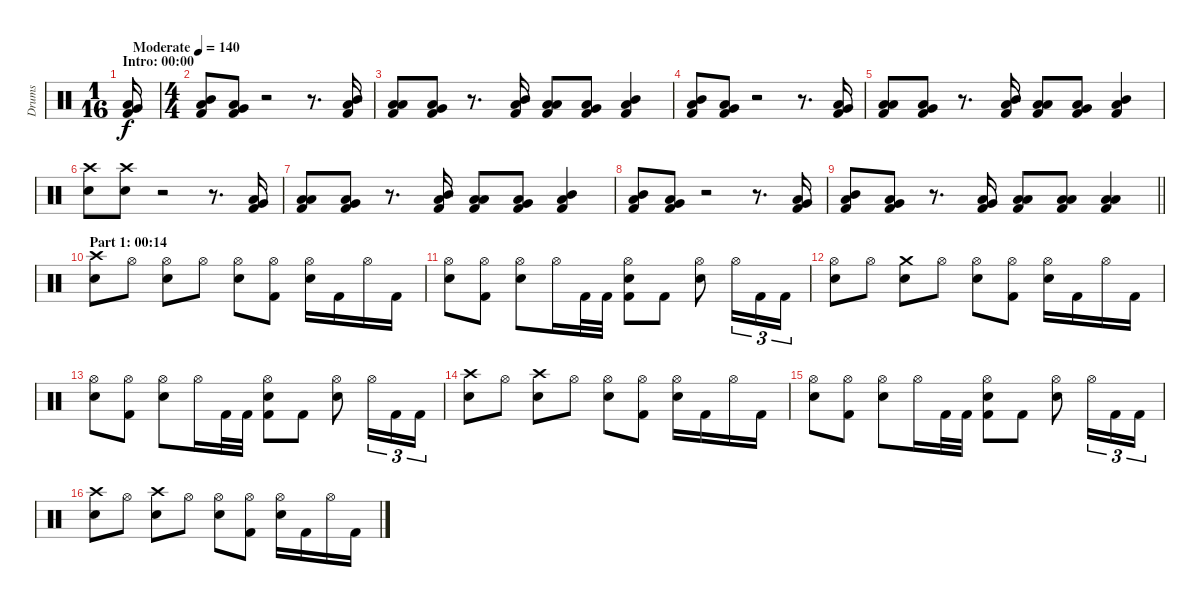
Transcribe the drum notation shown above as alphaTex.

\track ("Drums" "Drums") {instrument percussion}
\staff {score}
\articulation defaults
\ts (1 16)
\section ("" "Intro: 00:00")
\tempo (140 "Moderate")
\clef neutral
\ks c
("Very Low Tom (hit)" "Low Floor Tom (hit)" "Kick (hit) 2").16{dy f} |
\ts (4 4)
("Mid Tom (hit)" "Low Floor Tom (hit)" "Kick (hit) 2").8 ("Very Low Tom (hit)" "Low Floor Tom (hit)" "Kick (hit) 2").8 r.2 r.8{d} ("Mid Tom (hit)" "Low Floor Tom (hit)" "Kick (hit) 2").16 |
("Low Tom (hit)" "Low Floor Tom (hit)" "Kick (hit) 2").8 ("Very Low Tom (hit)" "Low Floor Tom (hit)" "Kick (hit) 2").8 r.8{d} ("Mid Tom (hit)" "Low Floor Tom (hit)" "Kick (hit) 2").16 ("Low Tom (hit)" "Low Floor Tom (hit)" "Kick (hit) 2").8 ("Very Low Tom (hit)" "Low Floor Tom (hit)" "Kick (hit) 2").8{bd 60} ("Mid Tom (hit)" "Low Floor Tom (hit)" "Kick (hit) 2").4 |
("Mid Tom (hit)" "Low Floor Tom (hit)" "Kick (hit) 2").8 ("Very Low Tom (hit)" "Low Floor Tom (hit)" "Kick (hit) 2").8{bd 120} r.2 r.8{d} ("Very Low Tom (hit)" "Low Floor Tom (hit)" "Kick (hit) 2").16 |
("Low Tom (hit)" "Low Floor Tom (hit)" "Kick (hit) 2").8 ("Very Low Tom (hit)" "Low Floor Tom (hit)" "Kick (hit) 2").8 r.8{d} ("Mid Tom (hit)" "Low Floor Tom (hit)" "Kick (hit) 2").16{bd 120} ("Low Tom (hit)" "Low Floor Tom (hit)" "Kick (hit) 2").8 ("Very Low Tom (hit)" "Low Floor Tom (hit)" "Kick (hit) 2").8{bd 60} ("Mid Tom (hit)" "Low Floor Tom (hit)" "Kick (hit) 2").4 |
("Crash high (hit)" "Electric Snare (hit)").8 ("Crash high (hit)" "Electric Snare (hit)").8 r.2 r.8{d} ("Very Low Tom (hit)" "Low Floor Tom (hit)" "Kick (hit) 2").16 |
("Low Tom (hit)" "Low Floor Tom (hit)" "Kick (hit) 2").8 ("Very Low Tom (hit)" "Low Floor Tom (hit)" "Kick (hit) 2").8 r.8{d} ("Mid Tom (hit)" "Low Floor Tom (hit)" "Kick (hit) 2").16 ("Low Tom (hit)" "Low Floor Tom (hit)" "Kick (hit) 2").8 ("Very Low Tom (hit)" "Low Floor Tom (hit)" "Kick (hit) 2").8 ("Mid Tom (hit)" "Low Floor Tom (hit)" "Kick (hit) 2").4 |
("Mid Tom (hit)" "Low Floor Tom (hit)" "Kick (hit) 2").8 ("Very Low Tom (hit)" "Low Floor Tom (hit)" "Kick (hit) 2").8 r.2 r.8{d} ("Very Low Tom (hit)" "Low Floor Tom (hit)" "Kick (hit) 2").16 |
\barLineRight lightlight
("Mid Tom (hit)" "Low Floor Tom (hit)" "Kick (hit) 2").8 ("Very Low Tom (hit)" "Low Floor Tom (hit)" "Kick (hit) 2").8{bd 120} r.8{d} ("Very Low Tom (hit)" "Low Floor Tom (hit)" "Kick (hit) 2").16 ("Low Tom (hit)" "Low Floor Tom (hit)" "Kick (hit) 2").8 ("Low Tom (hit)" "Low Floor Tom (hit)" "Kick (hit) 2").8 ("Low Tom (hit)" "Low Floor Tom (hit)" "Kick (hit) 2").4 |
\section ("" "Part 1: 00:14")
("Crash high (hit)" "Electric Snare (hit)").8 "Hi-Hat (open)".8 ("Hi-Hat (open)" "Electric Snare (hit)").8 "Hi-Hat (open)".8 ("Hi-Hat (open)" "Electric Snare (hit)").8 ("Hi-Hat (open)" "Kick (hit) 2").8 ("Hi-Hat (open)" "Electric Snare (hit)").16 "Kick (hit) 2".16 "Hi-Hat (open)".16 "Kick (hit) 2".16 |
("Hi-Hat (open)" "Electric Snare (hit)").8 ("Hi-Hat (open)" "Kick (hit) 2").8 ("Hi-Hat (open)" "Electric Snare (hit)").8 "Hi-Hat (open)".16 "Kick (hit) 2".32 "Kick (hit) 2".32 ("Hi-Hat (open)" "Electric Snare (hit)" "Kick (hit) 2").8 "Kick (hit) 2".8 ("Hi-Hat (open)" "Electric Snare (hit)").8 "Hi-Hat (open)".16{tu (3 2)} "Kick (hit) 2".16{tu (3 2)} "Kick (hit) 2".16{tu (3 2)} |
("Hi-Hat (open)" "Electric Snare (hit)").8 "Hi-Hat (open)".8 ("Crash medium (hit)" "Electric Snare (hit)").8 "Hi-Hat (open)".8 ("Hi-Hat (open)" "Electric Snare (hit)").8 ("Hi-Hat (open)" "Kick (hit) 2").8 ("Hi-Hat (open)" "Electric Snare (hit)").16 "Kick (hit) 2".16 "Hi-Hat (open)".16 "Kick (hit) 2".16 |
("Hi-Hat (open)" "Electric Snare (hit)").8 ("Hi-Hat (open)" "Kick (hit) 2").8 ("Hi-Hat (open)" "Electric Snare (hit)").8 "Hi-Hat (open)".16 "Kick (hit) 2".32 "Kick (hit) 2".32 ("Hi-Hat (open)" "Electric Snare (hit)" "Kick (hit) 2").8 "Kick (hit) 2".8 ("Hi-Hat (open)" "Electric Snare (hit)").8 "Hi-Hat (open)".16{tu (3 2)} "Kick (hit) 2".16{tu (3 2)} "Kick (hit) 2".16{tu (3 2)} |
("Crash high (hit)" "Electric Snare (hit)").8 "Hi-Hat (open)".8 ("Crash high (hit)" "Electric Snare (hit)").8 "Hi-Hat (open)".8 ("Hi-Hat (open)" "Electric Snare (hit)").8 ("Hi-Hat (open)" "Kick (hit) 2").8 ("Hi-Hat (open)" "Electric Snare (hit)").16 "Kick (hit) 2".16 "Hi-Hat (open)".16 "Kick (hit) 2".16 |
("Hi-Hat (open)" "Electric Snare (hit)").8 ("Hi-Hat (open)" "Kick (hit) 2").8 ("Hi-Hat (open)" "Electric Snare (hit)").8 "Hi-Hat (open)".16 "Kick (hit) 2".32 "Kick (hit) 2".32 ("Hi-Hat (open)" "Electric Snare (hit)" "Kick (hit) 2").8 "Kick (hit) 2".8 ("Hi-Hat (open)" "Electric Snare (hit)").8 "Hi-Hat (open)".16{tu (3 2)} "Kick (hit) 2".16{tu (3 2)} "Kick (hit) 2".16{tu (3 2)} |
("Crash high (hit)" "Electric Snare (hit)").8 "Hi-Hat (open)".8 ("Crash high (hit)" "Electric Snare (hit)").8 "Hi-Hat (open)".8 ("Hi-Hat (open)" "Electric Snare (hit)").8 ("Hi-Hat (open)" "Kick (hit) 2").8 ("Hi-Hat (open)" "Electric Snare (hit)").16 "Kick (hit) 2".16 "Hi-Hat (open)".16 "Kick (hit) 2".16
